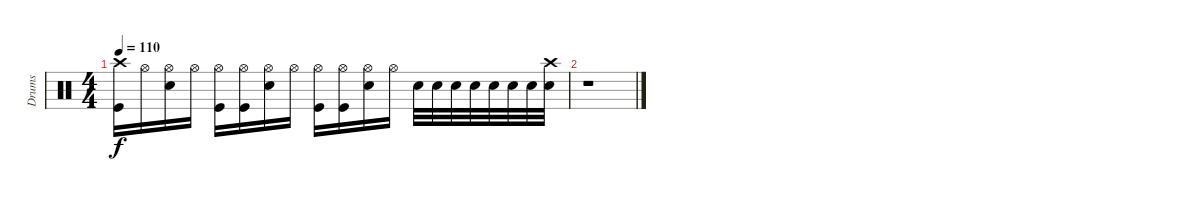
\track ("Drums" "Drums") {instrument percussion}
\staff {score}
\articulation defaults
\ts (4 4)
\tempo 110
\clef neutral
\ks c
("Crash high (hit)" "Kick (hit)").16{dy f} "Hi-Hat (open)".16 ("Hi-Hat (open)" "Snare (hit) 2").16 "Hi-Hat (open)".16 ("Hi-Hat (open)" "Kick (hit)").16 ("Hi-Hat (open)" "Kick (hit)").16 ("Hi-Hat (open)" "Snare (hit) 2").16 "Hi-Hat (open)".16 ("Hi-Hat (open)" "Kick (hit)").16 ("Hi-Hat (open)" "Kick (hit)").16 ("Hi-Hat (open)" "Snare (hit) 2").16 "Hi-Hat (open)".16 "Snare (hit) 2".32 "Snare (hit) 2".32 "Snare (hit) 2".32 "Snare (hit) 2".32 "Snare (hit) 2".32 "Snare (hit) 2".32 "Snare (hit) 2".32 ("Crash high (hit)" "Snare (hit) 2").32 |
r.1
